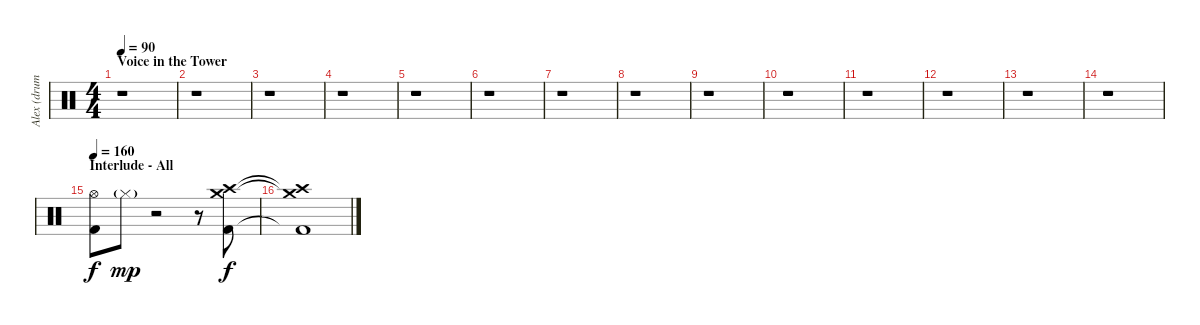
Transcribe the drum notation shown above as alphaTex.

\track ("Alex (drums)" "Alex (drum") {instrument percussion}
\staff {score}
\articulation defaults
\ts (4 4)
\section ("" "Voice in the Tower")
\tempo 90
\clef neutral
\ks c
r.1{dy f} |
r.1 |
r.1 |
r.1 |
r.1 |
r.1 |
r.1 |
r.1 |
r.1 |
r.1 |
r.1 |
r.1 |
r.1 |
r.1 |
\section ("" "Interlude - All")
\tempo 160
("Hi-Hat (open)" "Kick (hit) 2").8 "Hi-Hat (closed)"{g}.8{dy mp} r.2 r.8 ("Kick (hit) 2" "Crash medium (hit)" "Crash high (hit)").8{dy f} |
("Kick (hit) 2"{t} "Crash medium (hit)"{t} "Crash high (hit)"{t}).1
